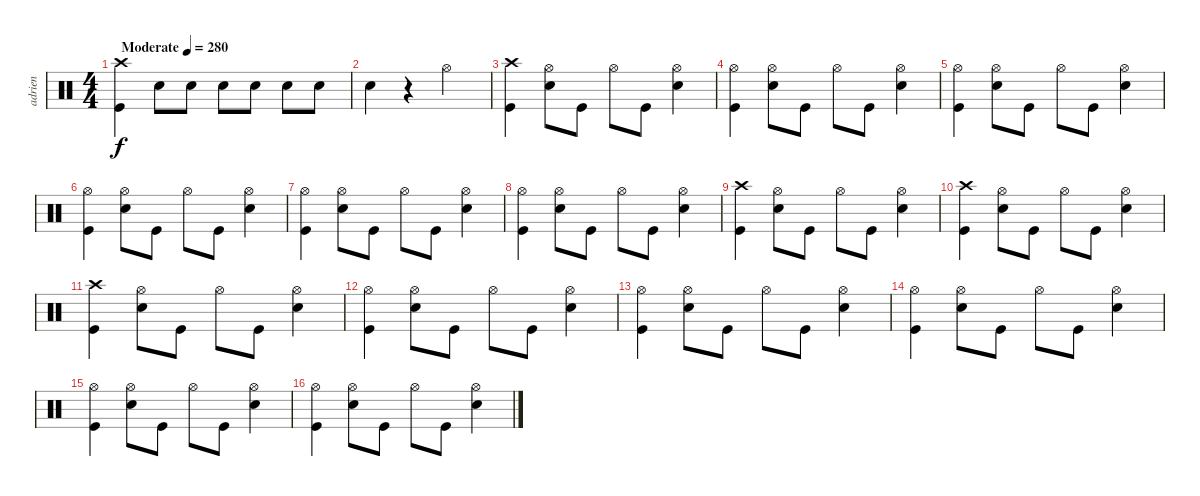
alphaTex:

\track ("adrien" "adrien") {instrument percussion}
\staff {score}
\articulation defaults
\ts (4 4)
\tempo (280 "Moderate")
\clef neutral
\ks c
("Crash high (hit)" "Kick (hit)").4{dy f} "Snare (hit) 2".8 "Snare (hit) 2".8 "Snare (hit) 2".8 "Snare (hit) 2".8 "Snare (hit) 2".8 "Snare (hit) 2".8 |
"Snare (hit) 2".4 r.4 "Hi-Hat (open)".2 |
("Crash high (hit)" "Kick (hit)").4 ("Hi-Hat (open)" "Snare (hit) 2").8 "Kick (hit)".8 "Hi-Hat (open)".8 "Kick (hit)".8 ("Hi-Hat (open)" "Snare (hit) 2").4 |
("Hi-Hat (open)" "Kick (hit)").4 ("Hi-Hat (open)" "Snare (hit) 2").8 "Kick (hit)".8 "Hi-Hat (open)".8 "Kick (hit)".8 ("Hi-Hat (open)" "Snare (hit) 2").4 |
("Hi-Hat (open)" "Kick (hit)").4 ("Hi-Hat (open)" "Snare (hit) 2").8 "Kick (hit)".8 "Hi-Hat (open)".8 "Kick (hit)".8 ("Hi-Hat (open)" "Snare (hit) 2").4 |
("Hi-Hat (open)" "Kick (hit)").4 ("Hi-Hat (open)" "Snare (hit) 2").8 "Kick (hit)".8 "Hi-Hat (open)".8 "Kick (hit)".8 ("Hi-Hat (open)" "Snare (hit) 2").4 |
("Hi-Hat (open)" "Kick (hit)").4 ("Hi-Hat (open)" "Snare (hit) 2").8 "Kick (hit)".8 "Hi-Hat (open)".8 "Kick (hit)".8 ("Hi-Hat (open)" "Snare (hit) 2").4 |
("Hi-Hat (open)" "Kick (hit)").4 ("Hi-Hat (open)" "Snare (hit) 2").8 "Kick (hit)".8 "Hi-Hat (open)".8 "Kick (hit)".8 ("Hi-Hat (open)" "Snare (hit) 2").4 |
("Crash high (hit)" "Kick (hit)").4 ("Hi-Hat (open)" "Snare (hit) 2").8 "Kick (hit)".8 "Hi-Hat (open)".8 "Kick (hit)".8 ("Hi-Hat (open)" "Snare (hit) 2").4 |
("Crash high (hit)" "Kick (hit)").4 ("Hi-Hat (open)" "Snare (hit) 2").8 "Kick (hit)".8 "Hi-Hat (open)".8 "Kick (hit)".8 ("Hi-Hat (open)" "Snare (hit) 2").4 |
("Crash high (hit)" "Kick (hit)").4 ("Hi-Hat (open)" "Snare (hit) 2").8 "Kick (hit)".8 "Hi-Hat (open)".8 "Kick (hit)".8 ("Hi-Hat (open)" "Snare (hit) 2").4 |
("Hi-Hat (open)" "Kick (hit)").4 ("Hi-Hat (open)" "Snare (hit) 2").8 "Kick (hit)".8 "Hi-Hat (open)".8 "Kick (hit)".8 ("Hi-Hat (open)" "Snare (hit) 2").4 |
("Hi-Hat (open)" "Kick (hit)").4 ("Hi-Hat (open)" "Snare (hit) 2").8 "Kick (hit)".8 "Hi-Hat (open)".8 "Kick (hit)".8 ("Hi-Hat (open)" "Snare (hit) 2").4 |
("Hi-Hat (open)" "Kick (hit)").4 ("Hi-Hat (open)" "Snare (hit) 2").8 "Kick (hit)".8 "Hi-Hat (open)".8 "Kick (hit)".8 ("Hi-Hat (open)" "Snare (hit) 2").4 |
("Hi-Hat (open)" "Kick (hit)").4 ("Hi-Hat (open)" "Snare (hit) 2").8 "Kick (hit)".8 "Hi-Hat (open)".8 "Kick (hit)".8 ("Hi-Hat (open)" "Snare (hit) 2").4 |
("Hi-Hat (open)" "Kick (hit)").4 ("Hi-Hat (open)" "Snare (hit) 2").8 "Kick (hit)".8 "Hi-Hat (open)".8 "Kick (hit)".8 ("Hi-Hat (open)" "Snare (hit) 2").4
